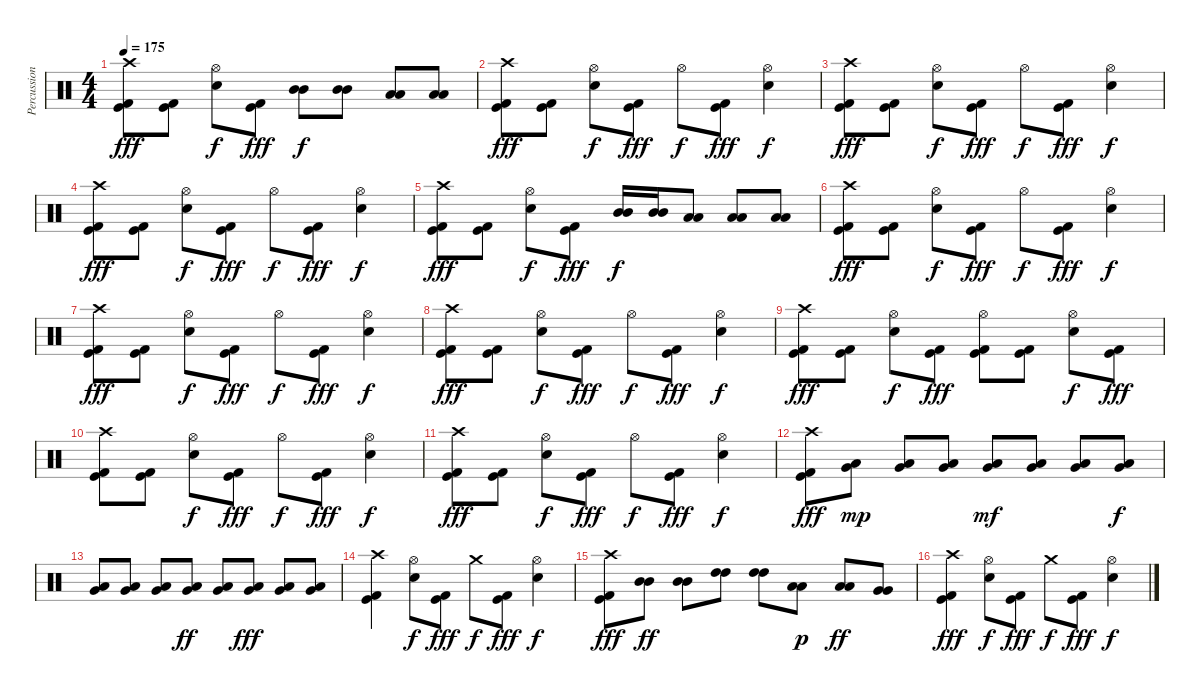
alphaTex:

\track ("Percussion" "Percussion") {instrument percussion}
\staff {score}
\articulation defaults
\ts (4 4)
\tempo 175
\clef neutral
\ks c
("Crash high (hit)" "Kick (hit)" "Kick (hit) 2").8{dy fff} ("Kick (hit)" "Kick (hit) 2").8 ("Hi-Hat (open)" "Electric Snare (hit)").8{dy f} ("Kick (hit)" "Kick (hit) 2").8{dy fff} ("Mid Tom (hit)" "Mid Tom (hit)").8{dy f} ("Mid Tom (hit)" "Mid Tom (hit)").8 ("Low Tom (hit)" "Low Tom (hit)").8 ("Low Tom (hit)" "Low Tom (hit)").8 |
("Crash high (hit)" "Kick (hit)" "Kick (hit) 2").8{dy fff} ("Kick (hit)" "Kick (hit) 2").8 ("Hi-Hat (open)" "Electric Snare (hit)").8{dy f} ("Kick (hit)" "Kick (hit) 2").8{dy fff} "Hi-Hat (open)".8{dy f} ("Kick (hit)" "Kick (hit) 2").8{dy fff} ("Hi-Hat (open)" "Electric Snare (hit)").4{dy f} |
("Crash high (hit)" "Kick (hit)" "Kick (hit) 2").8{dy fff} ("Kick (hit)" "Kick (hit) 2").8 ("Hi-Hat (open)" "Electric Snare (hit)").8{dy f} ("Kick (hit)" "Kick (hit) 2").8{dy fff} "Hi-Hat (open)".8{dy f} ("Kick (hit)" "Kick (hit) 2").8{dy fff} ("Hi-Hat (open)" "Electric Snare (hit)").4{dy f} |
("Crash high (hit)" "Kick (hit)" "Kick (hit) 2").8{dy fff} ("Kick (hit)" "Kick (hit) 2").8 ("Hi-Hat (open)" "Electric Snare (hit)").8{dy f} ("Kick (hit)" "Kick (hit) 2").8{dy fff} "Hi-Hat (open)".8{dy f} ("Kick (hit)" "Kick (hit) 2").8{dy fff} ("Hi-Hat (open)" "Electric Snare (hit)").4{dy f} |
("Crash high (hit)" "Kick (hit)" "Kick (hit) 2").8{dy fff} ("Kick (hit)" "Kick (hit) 2").8 ("Hi-Hat (open)" "Electric Snare (hit)").8{dy f} ("Kick (hit)" "Kick (hit) 2").8{dy fff} ("Mid Tom (hit)" "Mid Tom (hit)").16{dy f} ("Mid Tom (hit)" "Mid Tom (hit)").16 ("Low Tom (hit)" "Low Tom (hit)").8 ("Low Tom (hit)" "Low Tom (hit)").8 ("Low Tom (hit)" "Low Tom (hit)").8 |
("Crash high (hit)" "Kick (hit)" "Kick (hit) 2").8{dy fff} ("Kick (hit)" "Kick (hit) 2").8 ("Hi-Hat (open)" "Electric Snare (hit)").8{dy f} ("Kick (hit)" "Kick (hit) 2").8{dy fff} "Hi-Hat (open)".8{dy f} ("Kick (hit)" "Kick (hit) 2").8{dy fff} ("Hi-Hat (open)" "Electric Snare (hit)").4{dy f} |
("Crash high (hit)" "Kick (hit)" "Kick (hit) 2").8{dy fff} ("Kick (hit)" "Kick (hit) 2").8 ("Hi-Hat (open)" "Electric Snare (hit)").8{dy f} ("Kick (hit)" "Kick (hit) 2").8{dy fff} "Hi-Hat (open)".8{dy f} ("Kick (hit)" "Kick (hit) 2").8{dy fff} ("Hi-Hat (open)" "Electric Snare (hit)").4{dy f} |
("Crash high (hit)" "Kick (hit)" "Kick (hit) 2").8{dy fff} ("Kick (hit)" "Kick (hit) 2").8 ("Hi-Hat (open)" "Electric Snare (hit)").8{dy f} ("Kick (hit)" "Kick (hit) 2").8{dy fff} "Hi-Hat (open)".8{dy f} ("Kick (hit)" "Kick (hit) 2").8{dy fff} ("Hi-Hat (open)" "Electric Snare (hit)").4{dy f} |
("Crash high (hit)" "Kick (hit)" "Kick (hit) 2").8{dy fff} ("Kick (hit)" "Kick (hit) 2").8 ("Hi-Hat (open)" "Electric Snare (hit)").8{dy f} ("Kick (hit)" "Kick (hit) 2").8{dy fff} ("Hi-Hat (open)" "Kick (hit)" "Kick (hit) 2").8 ("Kick (hit)" "Kick (hit) 2").8 ("Hi-Hat (open)" "Electric Snare (hit)").8{dy f} ("Kick (hit)" "Kick (hit) 2").8{dy fff} |
("Crash high (hit)" "Kick (hit)" "Kick (hit) 2").8 ("Kick (hit)" "Kick (hit) 2").8 ("Hi-Hat (open)" "Electric Snare (hit)").8{dy f} ("Kick (hit)" "Kick (hit) 2").8{dy fff} "Hi-Hat (open)".8{dy f} ("Kick (hit)" "Kick (hit) 2").8{dy fff} ("Hi-Hat (open)" "Electric Snare (hit)").4{dy f} |
("Crash high (hit)" "Kick (hit)" "Kick (hit) 2").8{dy fff} ("Kick (hit)" "Kick (hit) 2").8 ("Hi-Hat (open)" "Electric Snare (hit)").8{dy f} ("Kick (hit)" "Kick (hit) 2").8{dy fff} "Hi-Hat (open)".8{dy f} ("Kick (hit)" "Kick (hit) 2").8{dy fff} ("Hi-Hat (open)" "Electric Snare (hit)").4{dy f} |
("Crash high (hit)" "Kick (hit)" "Kick (hit) 2").8{dy fff} ("Very Low Tom (hit)" "Low Tom (hit)").8{dy mp} ("Very Low Tom (hit)" "Low Tom (hit)").8 ("Very Low Tom (hit)" "Low Tom (hit)").8 ("Very Low Tom (hit)" "Low Tom (hit)").8{dy mf} ("Very Low Tom (hit)" "Low Tom (hit)").8 ("Very Low Tom (hit)" "Low Tom (hit)").8 ("Very Low Tom (hit)" "Low Tom (hit)").8{dy f} |
("Very Low Tom (hit)" "Low Tom (hit)").8 ("Very Low Tom (hit)" "Low Tom (hit)").8 ("Very Low Tom (hit)" "Low Tom (hit)").8 ("Very Low Tom (hit)" "Low Tom (hit)").8{dy ff} ("Very Low Tom (hit)" "Low Tom (hit)").8 ("Very Low Tom (hit)" "Low Tom (hit)").8{dy fff} ("Very Low Tom (hit)" "Low Tom (hit)").8 ("Very Low Tom (hit)" "Low Tom (hit)").8 |
("Crash high (hit)" "Kick (hit)" "Kick (hit) 2").4 ("Hi-Hat (open)" "Electric Snare (hit)").8{dy f} ("Kick (hit)" "Kick (hit) 2").8{dy fff} "Crash medium (hit)".8{dy f} ("Kick (hit)" "Kick (hit) 2").8{dy fff} ("Hi-Hat (open)" "Electric Snare (hit)").4{dy f} |
("Crash high (hit)" "Kick (hit)" "Kick (hit) 2").8{dy fff} ("Mid Tom (hit)" "Mid Tom (hit)").8{dy ff} ("Mid Tom (hit)" "Mid Tom (hit)").8 ("High Tom (hit)" "High Tom (hit)").8 ("High Tom (hit)" "High Tom (hit)").8 ("Low Tom (hit)" "Low Tom (hit)").8{dy p} ("Low Tom (hit)" "Low Tom (hit)").8{dy ff} ("Very Low Tom (hit)" "Very Low Tom (hit)").8 |
("Crash high (hit)" "Kick (hit)" "Kick (hit) 2").4{dy fff} ("Hi-Hat (open)" "Electric Snare (hit)").8{dy f} ("Kick (hit)" "Kick (hit) 2").8{dy fff} "Crash medium (hit)".8{dy f} ("Kick (hit)" "Kick (hit) 2").8{dy fff} ("Hi-Hat (open)" "Electric Snare (hit)").4{dy f}
